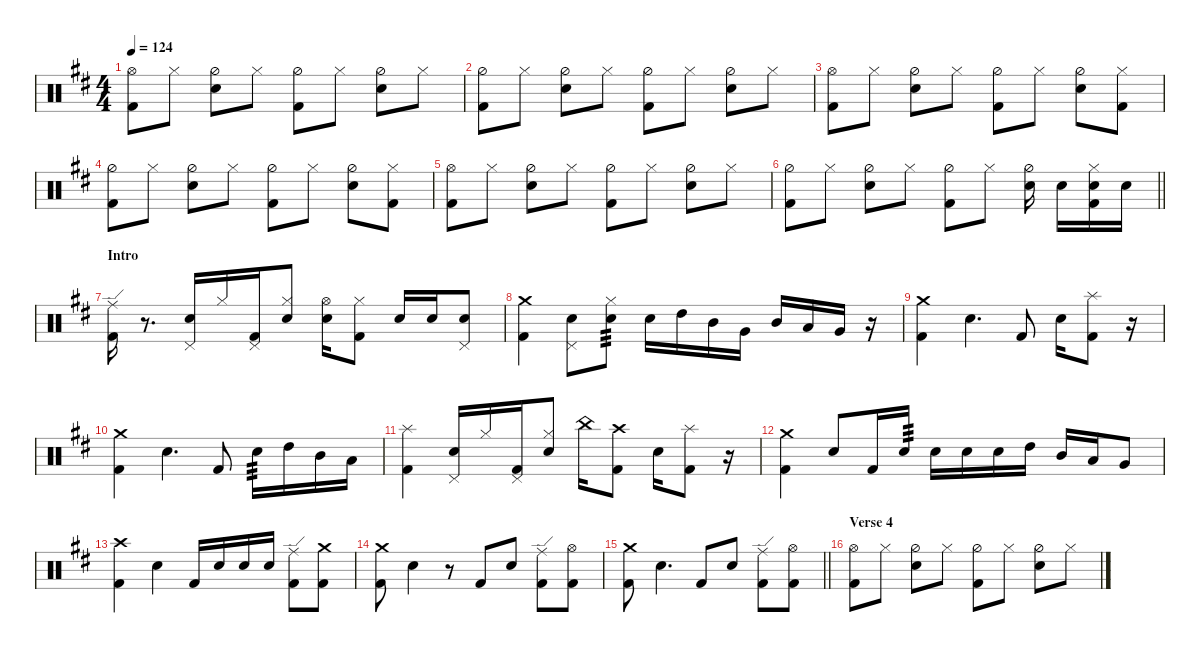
\hideDynamics
\bracketExtendMode nobrackets
\singleTrackTrackNamePolicy hidden
\multiTrackTrackNamePolicy hidden
\otherSystemsTrackNameOrientation horizontal
\track ("Drumkit" "Drums") {instrument percussion}
\staff {score}
\articulation defaults
\ts (4 4)
\tempo 124
\clef neutral
\ks bminor
("Kick (hit) 2"{acc forcenatural} "Hi-Hat (open)"{acc forcenatural}).8{dy f beam Down} "Hi-Hat (closed)"{acc forcenatural}.8{beam Down} ("Hi-Hat (half)"{acc forcenatural} "Snare (hit) 2"{acc forcenatural}).8{beam Down} "Hi-Hat (closed)"{acc forcenatural}.8{beam Down} ("Hi-Hat (half)"{acc forcenatural} "Kick (hit) 2"{acc forcenatural}).8{beam Down} "Hi-Hat (closed)"{acc forcenatural}.8{beam Down} ("Snare (hit) 2"{acc forcenatural} "Hi-Hat (half)"{acc forcenatural}).8{beam Down} "Hi-Hat (closed)"{acc forcenatural}.8{beam Down} |
("Kick (hit) 2"{acc forcenatural} "Hi-Hat (half)"{acc forcenatural}).8{beam Down} "Hi-Hat (closed)"{acc forcenatural}.8{beam Down} ("Hi-Hat (half)"{acc forcenatural} "Snare (hit) 2"{acc forcenatural}).8{beam Down} "Hi-Hat (closed)"{acc forcenatural}.8{beam Down} ("Hi-Hat (half)"{acc forcenatural} "Kick (hit) 2"{acc forcenatural}).8{beam Down} "Hi-Hat (closed)"{acc forcenatural}.8{beam Down} ("Hi-Hat (half)"{acc forcenatural} "Snare (hit) 2"{acc forcenatural}).8{beam Down} "Hi-Hat (closed)"{acc forcenatural}.8{beam Down} |
("Kick (hit) 2"{acc forcenatural} "Hi-Hat (open)"{acc forcenatural}).8{beam Down} "Hi-Hat (closed)"{acc forcenatural}.8{beam Down} ("Hi-Hat (half)"{acc forcenatural} "Snare (hit) 2"{acc forcenatural}).8{beam Down} "Hi-Hat (closed)"{acc forcenatural}.8{beam Down} ("Hi-Hat (half)"{acc forcenatural} "Kick (hit) 2"{acc forcenatural}).8{beam Down} "Hi-Hat (closed)"{acc forcenatural}.8{beam Down} ("Hi-Hat (half)"{acc forcenatural} "Snare (hit) 2"{acc forcenatural}).8{beam Down} ("Hi-Hat (closed)"{acc forcenatural} "Kick (hit) 2"{acc forcenatural}).8{beam Down} |
("Kick (hit) 2"{acc forcenatural} "Hi-Hat (half)"{acc forcenatural}).8{beam Down} "Hi-Hat (closed)"{acc forcenatural}.8{beam Down} ("Hi-Hat (half)"{acc forcenatural} "Snare (hit) 2"{acc forcenatural}).8{beam Down} "Hi-Hat (closed)"{acc forcenatural}.8{beam Down} ("Hi-Hat (half)"{acc forcenatural} "Kick (hit) 2"{acc forcenatural}).8{beam Down} "Hi-Hat (closed)"{acc forcenatural}.8{beam Down} ("Hi-Hat (half)"{acc forcenatural} "Snare (hit) 2"{acc forcenatural}).8{beam Down} ("Hi-Hat (closed)"{acc forcenatural} "Kick (hit) 2"{acc forcenatural}).8{beam Down} |
("Kick (hit) 2"{acc forcenatural} "Hi-Hat (open)"{acc forcenatural}).8{beam Down} "Hi-Hat (closed)"{acc forcenatural}.8{beam Down} ("Hi-Hat (half)"{acc forcenatural} "Snare (hit) 2"{acc forcenatural}).8{beam Down} "Hi-Hat (closed)"{acc forcenatural}.8{beam Down} ("Hi-Hat (half)"{acc forcenatural} "Kick (hit) 2"{acc forcenatural}).8{beam Down} "Hi-Hat (closed)"{acc forcenatural}.8{beam Down} ("Hi-Hat (half)"{acc forcenatural} "Snare (hit) 2"{acc forcenatural}).8{beam Down} "Hi-Hat (closed)"{acc forcenatural}.8{beam Down} |
\barLineRight lightlight
("Kick (hit) 2"{acc forcenatural} "Hi-Hat (half)"{acc forcenatural}).8{beam Down} "Hi-Hat (closed)"{acc forcenatural}.8{beam Down} ("Hi-Hat (half)"{acc forcenatural} "Snare (hit) 2"{acc forcenatural}).8{beam Down} "Hi-Hat (closed)"{acc forcenatural}.8{beam Down} ("Hi-Hat (half)"{acc forcenatural} "Kick (hit) 2"{acc forcenatural}).8{beam Down} "Hi-Hat (closed)"{acc forcenatural}.8{beam Down} ("Snare (hit) 2"{acc forcenatural} "Hi-Hat (half)"{acc forcenatural}).16{beam Down beam split} "Snare (hit) 2"{acc forcenatural}.16{beam Down} ("Hi-Hat (closed)"{acc forcenatural} "Snare (hit) 2"{acc forcenatural} "Kick (hit) 2"{acc forcenatural}).16{beam Down} "Snare (hit) 2"{acc forcenatural}.16{beam Down} |
\section ("" "Intro")
("Kick (hit) 2"{acc forcenatural} "Ride (edge)"{acc forcenatural}).16{beam Down} r.8{d beam Down} ("Snare (hit) 2"{acc forcenatural} "Pedal Hi-Hat (hit)"{acc forcenatural}).16{beam Up} "Hi-Hat (closed)"{acc forcenatural}.16{beam Up} ("Kick (hit) 2"{acc forcenatural} "Pedal Hi-Hat (hit)"{acc forcenatural}).16{beam Up} ("Snare (hit) 2"{acc forcenatural} "Hi-Hat (closed)"{acc forcenatural}).8{beam Up} ("Snare (hit) 2"{acc forcenatural} "Hi-Hat (open)"{acc forcenatural}).16{beam Down} ("Kick (hit) 2"{acc forcenatural} "Hi-Hat (closed)"{acc forcenatural}).8{beam Down} "Snare (hit) 2"{acc forcenatural}.16{beam Up} "Snare (hit) 2"{acc forcenatural}.16{beam Up} ("Snare (hit) 2"{acc forcenatural} "Pedal Hi-Hat (hit)"{acc forcenatural}).8{dy mf beam Up} |
("Crash medium (hit)"{acc forcenatural} "Kick (hit) 2"{acc forcenatural}).4{dy f beam Down} ("Snare (hit) 2"{acc forcenatural} "Pedal Hi-Hat (hit)"{acc forcenatural}).8{beam Down} ("Snare (hit) 2"{acc forcenatural} "Hi-Hat (closed)"{acc forcenatural}).8{tp 3 dy mf beam Down} "Snare (hit) 2"{acc forcenatural}.16{dy f beam Down} "High Tom (hit)"{acc forcenatural}.16{beam Down} "Mid Tom (hit)"{acc forcenatural}.16{beam Down} "Very Low Tom (hit)"{acc forcenatural}.16{beam Down} "Mid Tom (hit)"{acc forcenatural}.16{beam Up} "Low Tom (hit)"{acc forcenatural}.16{beam Up} "Very Low Tom (hit)"{acc forcenatural}.16{beam Up} r.16{beam Up} |
("Crash medium (hit)"{acc forcenatural} "Kick (hit) 2"{acc forcenatural}).4{beam Down} "Snare (hit) 2"{acc forcenatural}.4{d beam Down} "Kick (hit) 2"{acc forcenatural}.8{beam Up} "Snare (hit) 2"{acc forcenatural}.16{beam Down} ("Kick (hit) 2"{acc forcenatural} "Splash (hit)"{acc forcenatural}).8{beam Down} r.16{beam Down} |
("Kick (hit) 2"{acc forcenatural} "Crash medium (hit)"{acc forcenatural}).4{beam Down} "Snare (hit) 2"{acc forcenatural}.4{d beam Down} "Kick (hit) 2"{acc forcenatural}.8{beam Up} "Snare (hit) 2"{acc forcenatural}.16{tp 3 dy mf beam Down} "High Tom (hit)"{acc forcenatural}.16{dy f beam Down} "Mid Tom (hit)"{acc forcenatural}.16{beam Down} "Low Tom (hit)"{acc forcenatural}.16{beam Down} |
("Kick (hit) 2"{acc forcenatural} "Splash (hit)"{acc forcenatural}).4{beam Down} ("Snare (hit) 2"{acc forcenatural} "Pedal Hi-Hat (hit)"{acc forcenatural}).16{beam Up} "Hi-Hat (closed)"{acc forcenatural}.16{beam Up} ("Kick (hit) 2"{acc forcenatural} "Pedal Hi-Hat (hit)"{acc forcenatural}).16{beam Up} ("Snare (hit) 2"{acc forcenatural} "Hi-Hat (closed)"{acc forcenatural}).8{beam Up} "China (hit)"{acc forcenatural}.16{beam Down} ("Kick (hit) 2"{acc forcenatural} "Crash high (hit)"{acc forcenatural}).8{beam Down} "Snare (hit) 2"{acc forcenatural}.16{beam Down} ("Kick (hit) 2"{acc forcenatural} "Splash (hit)"{acc forcenatural}).8{beam Down} r.16{beam Down} |
("Kick (hit) 2"{acc forcenatural} "Crash medium (hit)"{acc forcenatural}).4{beam Down} "Snare (hit) 2"{acc forcenatural}.8{beam Up} "Kick (hit) 2"{acc forcenatural}.16{beam Up} "Snare (hit) 2"{acc forcenatural}.16{tp 3 dy mf beam Up} "Snare (hit) 2"{acc forcenatural}.16{dy f beam Down} "Snare (hit) 2"{acc forcenatural}.16{beam Down} "Snare (hit) 2"{acc forcenatural}.16{beam Down} "High Tom (hit)"{acc forcenatural}.16{beam Down} "Mid Tom (hit)"{acc forcenatural}.16{beam Up} "Low Tom (hit)"{acc forcenatural}.16{beam Up} "Very Low Tom (hit)"{acc forcenatural}.8{beam Up} |
("Kick (hit) 2"{acc forcenatural} "Crash high (hit)"{acc forcenatural}).4{beam Down} "Snare (hit) 2"{acc forcenatural}.4{beam Down} "Kick (hit) 2"{acc forcenatural}.16{beam Up} "Snare (hit) 2"{acc forcenatural}.16{beam Up} "Snare (hit) 2"{acc forcenatural}.16{beam Up} "Snare (hit) 2"{acc forcenatural}.16{beam Up} ("Kick (hit) 2"{acc forcenatural} "Ride (edge)"{acc forcenatural}).8{beam Down} ("Kick (hit) 2"{acc forcenatural} "Crash medium (hit)"{acc forcenatural}).8{beam Down} |
("Kick (hit) 2"{acc forcenatural} "Crash medium (hit)"{acc forcenatural}).8{beam Down} "Snare (hit) 2"{acc forcenatural}.4{beam Down} r.8{beam Down} "Kick (hit) 2"{acc forcenatural}.8{beam Up} "Snare (hit) 2"{acc forcenatural}.8{beam Up} ("Kick (hit) 2"{acc forcenatural} "Ride (edge)"{acc forcenatural}).8{beam Down} ("Hi-Hat (open)"{acc forcenatural} "Kick (hit) 2"{acc forcenatural}).8{beam Down} |
\barLineRight lightlight
("Kick (hit) 2"{acc forcenatural} "Crash medium (hit)"{acc forcenatural}).8{beam Down} "Snare (hit) 2"{acc forcenatural}.4{d beam Down} "Kick (hit) 2"{acc forcenatural}.8{beam Up} "Snare (hit) 2"{acc forcenatural}.8{beam Up} ("Kick (hit) 2"{acc forcenatural} "Ride (edge)"{acc forcenatural}).8{beam Down} ("Kick (hit) 2"{acc forcenatural} "Hi-Hat (open)"{acc forcenatural}).8{beam Down} |
\section ("" "Verse 4")
("Kick (hit) 2"{acc forcenatural} "Hi-Hat (open)"{acc forcenatural}).8{beam Down} "Hi-Hat (closed)"{acc forcenatural}.8{beam Down} ("Hi-Hat (half)"{acc forcenatural} "Snare (hit) 2"{acc forcenatural}).8{beam Down} "Hi-Hat (closed)"{acc forcenatural}.8{beam Down} ("Hi-Hat (half)"{acc forcenatural} "Kick (hit) 2"{acc forcenatural}).8{beam Down} "Hi-Hat (closed)"{acc forcenatural}.8{beam Down} ("Hi-Hat (half)"{acc forcenatural} "Snare (hit) 2"{acc forcenatural}).8{beam Down} "Hi-Hat (closed)"{acc forcenatural}.8{beam Down}
